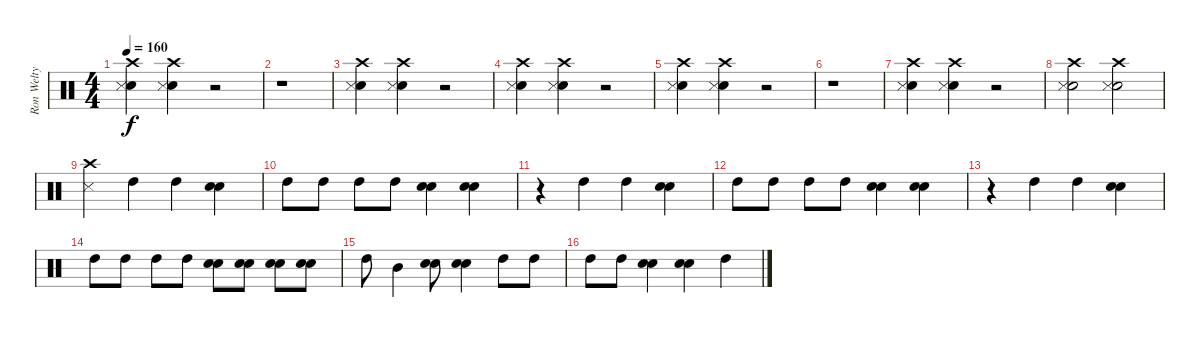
\track ("Ron Welty" "Ron Welty") {instrument percussion}
\staff {score}
\articulation defaults
\ts (4 4)
\tempo 160
\clef neutral
\ks c
("Crash high (hit)" "Snare (hit) 2" "Metronome (hit)").4{dy f} ("Crash high (hit)" "Snare (hit) 2" "Metronome (hit)").4 r.2 |
r.1 |
("Crash high (hit)" "Snare (hit) 2" "Metronome (hit)").4 ("Crash high (hit)" "Snare (hit) 2" "Metronome (hit)").4 r.2 |
("Crash high (hit)" "Snare (hit) 2" "Metronome (hit)").4 ("Crash high (hit)" "Snare (hit) 2" "Metronome (hit)").4 r.2 |
("Crash high (hit)" "Snare (hit) 2" "Metronome (hit)").4 ("Crash high (hit)" "Snare (hit) 2" "Metronome (hit)").4 r.2 |
r.1 |
("Crash high (hit)" "Snare (hit) 2" "Metronome (hit)").4 ("Crash high (hit)" "Snare (hit) 2" "Metronome (hit)").4 r.2 |
("Crash high (hit)" "Snare (hit) 2" "Metronome (hit)").2 ("Crash high (hit)" "Snare (hit) 2" "Metronome (hit)").2 |
("Crash high (hit)" "Metronome (hit)").4 "High Tom (hit)".4 "High Tom (hit)".4 ("Snare (hit) 2" "Snare (hit) 2").4 |
"High Tom (hit)".8 "High Tom (hit)".8 "High Tom (hit)".8 "High Tom (hit)".8 ("Snare (hit) 2" "Snare (hit) 2").4 ("Snare (hit) 2" "Snare (hit) 2").4 |
r.4 "High Tom (hit)".4 "High Tom (hit)".4 ("Snare (hit) 2" "Snare (hit) 2").4 |
"High Tom (hit)".8 "High Tom (hit)".8 "High Tom (hit)".8 "High Tom (hit)".8 ("Snare (hit) 2" "Snare (hit) 2").4 ("Snare (hit) 2" "Snare (hit) 2").4 |
r.4 "High Tom (hit)".4 "High Tom (hit)".4 ("Snare (hit) 2" "Snare (hit) 2").4 |
"High Tom (hit)".8 "High Tom (hit)".8 "High Tom (hit)".8 "High Tom (hit)".8 ("Snare (hit) 2" "Snare (hit) 2").8 ("Snare (hit) 2" "Snare (hit) 2").8 ("Snare (hit) 2" "Snare (hit) 2").8 ("Snare (hit) 2" "Snare (hit) 2").8 |
"High Tom (hit)".8 "Mid Tom (hit)".4 ("Snare (hit) 2" "Snare (hit) 2").8 ("Snare (hit) 2" "Snare (hit) 2").4 "High Tom (hit)".8 "High Tom (hit)".8 |
"High Tom (hit)".8 "High Tom (hit)".8 ("Snare (hit) 2" "Snare (hit) 2").4 ("Snare (hit) 2" "Snare (hit) 2").4 "High Tom (hit)".4
